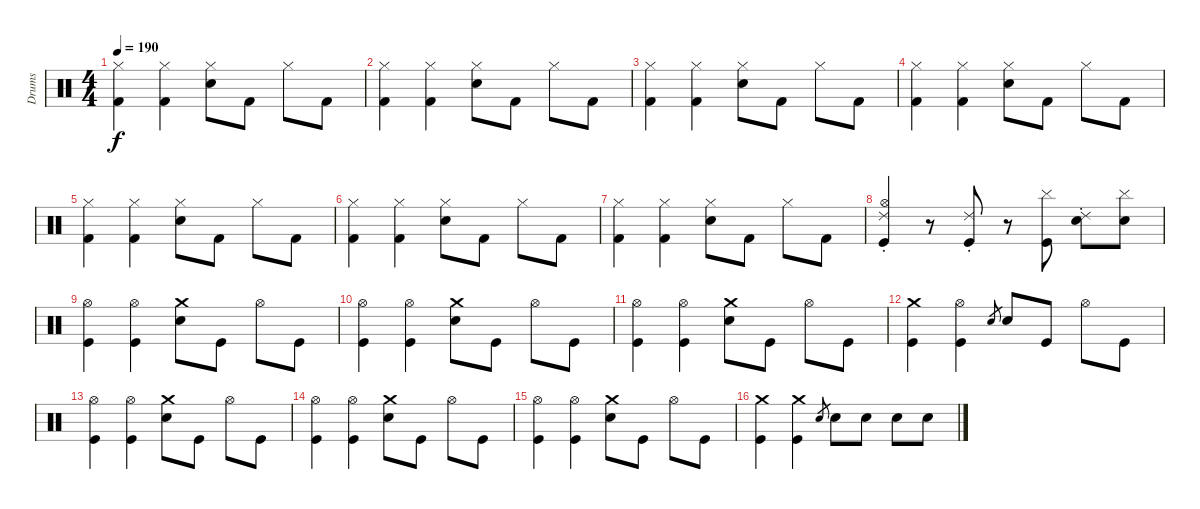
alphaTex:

\track ("Drums" "Drums") {instrument percussion}
\staff {score}
\articulation defaults
\ts (4 4)
\tempo 190
\clef neutral
\ks c
("Hi-Hat (closed)" "Kick (hit) 2").4{dy f} ("Hi-Hat (closed)" "Kick (hit) 2").4 ("Hi-Hat (closed)" "Electric Snare (hit)").8 "Kick (hit) 2".8 "Hi-Hat (closed)".8 "Kick (hit) 2".8 |
("Hi-Hat (closed)" "Kick (hit) 2").4 ("Hi-Hat (closed)" "Kick (hit) 2").4 ("Hi-Hat (closed)" "Electric Snare (hit)").8 "Kick (hit) 2".8 "Hi-Hat (closed)".8 "Kick (hit) 2".8 |
("Hi-Hat (closed)" "Kick (hit) 2").4 ("Hi-Hat (closed)" "Kick (hit) 2").4 ("Hi-Hat (closed)" "Electric Snare (hit)").8 "Kick (hit) 2".8 "Hi-Hat (closed)".8 "Kick (hit) 2".8 |
("Hi-Hat (closed)" "Kick (hit) 2").4 ("Hi-Hat (closed)" "Kick (hit) 2").4 ("Hi-Hat (closed)" "Electric Snare (hit)").8 "Kick (hit) 2".8 "Hi-Hat (closed)".8 "Kick (hit) 2".8 |
("Hi-Hat (closed)" "Kick (hit) 2").4 ("Hi-Hat (closed)" "Kick (hit) 2").4 ("Hi-Hat (closed)" "Electric Snare (hit)").8 "Kick (hit) 2".8 "Hi-Hat (closed)".8 "Kick (hit) 2".8 |
("Hi-Hat (closed)" "Kick (hit) 2").4 ("Hi-Hat (closed)" "Kick (hit) 2").4 ("Hi-Hat (closed)" "Electric Snare (hit)").8 "Kick (hit) 2".8 "Hi-Hat (closed)".8 "Kick (hit) 2".8 |
("Hi-Hat (closed)" "Kick (hit) 2").4 ("Hi-Hat (closed)" "Kick (hit) 2").4 ("Hi-Hat (closed)" "Electric Snare (hit)").8 "Kick (hit) 2".8 "Hi-Hat (closed)".8 "Kick (hit) 2".8 |
("Ride (choke) 2" "Hi-Hat (open)" "Kick (hit)").4 r.8 ("Ride (choke) 2" "Kick (hit)").8 r.8 ("Cymbal (hit)" "Kick (hit)").8 ("Ride (choke) 2" "Electric Snare (hit)").8 ("Cymbal (hit)" "Electric Snare (hit)").8 |
("Hi-Hat (open)" "Kick (hit)").4 ("Hi-Hat (open)" "Kick (hit)").4 ("Crash medium (hit)" "Electric Snare (hit)").8 "Kick (hit)".8 "Hi-Hat (open)".8 "Kick (hit)".8 |
("Hi-Hat (open)" "Kick (hit)").4 ("Hi-Hat (open)" "Kick (hit)").4 ("Crash medium (hit)" "Electric Snare (hit)").8 "Kick (hit)".8 "Hi-Hat (open)".8 "Kick (hit)".8 |
("Hi-Hat (open)" "Kick (hit)").4 ("Hi-Hat (open)" "Kick (hit)").4 ("Crash medium (hit)" "Electric Snare (hit)").8 "Kick (hit)".8 "Hi-Hat (open)".8 "Kick (hit)".8 |
("Crash medium (hit)" "Kick (hit)").4 ("Hi-Hat (open)" "Kick (hit)").4 "Electric Snare (hit)".8{gr} "Electric Snare (hit)".8 "Kick (hit)".8 "Hi-Hat (open)".8 "Kick (hit)".8 |
("Hi-Hat (open)" "Kick (hit)").4 ("Hi-Hat (open)" "Kick (hit)").4 ("Crash medium (hit)" "Electric Snare (hit)").8 "Kick (hit)".8 "Hi-Hat (open)".8 "Kick (hit)".8 |
("Hi-Hat (open)" "Kick (hit)").4 ("Hi-Hat (open)" "Kick (hit)").4 ("Crash medium (hit)" "Electric Snare (hit)").8 "Kick (hit)".8 "Hi-Hat (open)".8 "Kick (hit)".8 |
("Hi-Hat (open)" "Kick (hit)").4 ("Hi-Hat (open)" "Kick (hit)").4 ("Crash medium (hit)" "Electric Snare (hit)").8 "Kick (hit)".8 "Hi-Hat (open)".8 "Kick (hit)".8 |
("Crash medium (hit)" "Kick (hit)").4 ("Crash medium (hit)" "Kick (hit)").4 "Electric Snare (hit)".8{gr} "Electric Snare (hit)".8 "Electric Snare (hit)".8 "Electric Snare (hit)".8 "Electric Snare (hit)".8
